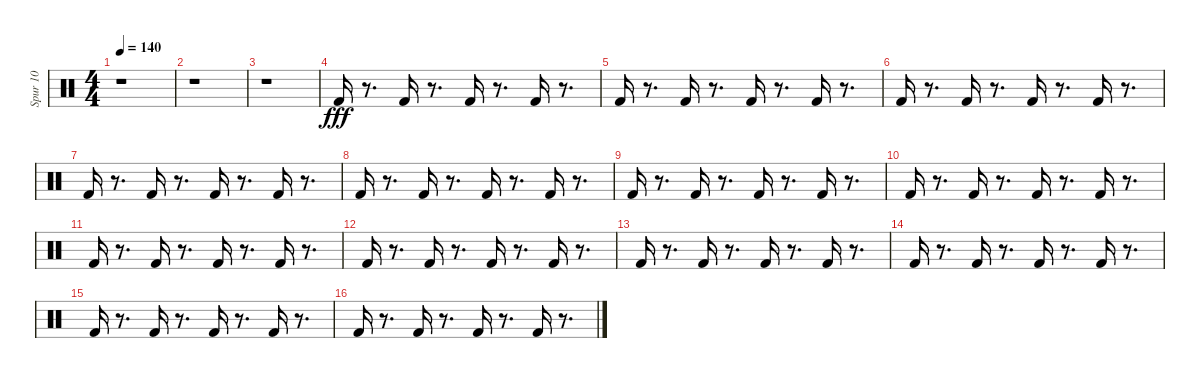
\track ("Spur 10" "Spur 10") {instrument percussion}
\staff {score}
\articulation defaults
\ts (4 4)
\tempo 140
\clef neutral
\ks c
r.1{dy fff} |
r.1 |
r.1 |
"Kick (hit) 2".16 r.8{d} "Kick (hit) 2".16 r.8{d} "Kick (hit) 2".16 r.8{d} "Kick (hit) 2".16 r.8{d} |
"Kick (hit) 2".16 r.8{d} "Kick (hit) 2".16 r.8{d} "Kick (hit) 2".16 r.8{d} "Kick (hit) 2".16 r.8{d} |
"Kick (hit) 2".16 r.8{d} "Kick (hit) 2".16 r.8{d} "Kick (hit) 2".16 r.8{d} "Kick (hit) 2".16 r.8{d} |
"Kick (hit) 2".16 r.8{d} "Kick (hit) 2".16 r.8{d} "Kick (hit) 2".16 r.8{d} "Kick (hit) 2".16 r.8{d} |
"Kick (hit) 2".16 r.8{d} "Kick (hit) 2".16 r.8{d} "Kick (hit) 2".16 r.8{d} "Kick (hit) 2".16 r.8{d} |
"Kick (hit) 2".16 r.8{d} "Kick (hit) 2".16 r.8{d} "Kick (hit) 2".16 r.8{d} "Kick (hit) 2".16 r.8{d} |
"Kick (hit) 2".16 r.8{d} "Kick (hit) 2".16 r.8{d} "Kick (hit) 2".16 r.8{d} "Kick (hit) 2".16 r.8{d} |
"Kick (hit) 2".16 r.8{d} "Kick (hit) 2".16 r.8{d} "Kick (hit) 2".16 r.8{d} "Kick (hit) 2".16 r.8{d} |
"Kick (hit) 2".16 r.8{d} "Kick (hit) 2".16 r.8{d} "Kick (hit) 2".16 r.8{d} "Kick (hit) 2".16 r.8{d} |
"Kick (hit) 2".16 r.8{d} "Kick (hit) 2".16 r.8{d} "Kick (hit) 2".16 r.8{d} "Kick (hit) 2".16 r.8{d} |
"Kick (hit) 2".16 r.8{d} "Kick (hit) 2".16 r.8{d} "Kick (hit) 2".16 r.8{d} "Kick (hit) 2".16 r.8{d} |
"Kick (hit) 2".16 r.8{d} "Kick (hit) 2".16 r.8{d} "Kick (hit) 2".16 r.8{d} "Kick (hit) 2".16 r.8{d} |
"Kick (hit) 2".16 r.8{d} "Kick (hit) 2".16 r.8{d} "Kick (hit) 2".16 r.8{d} "Kick (hit) 2".16 r.8{d}
